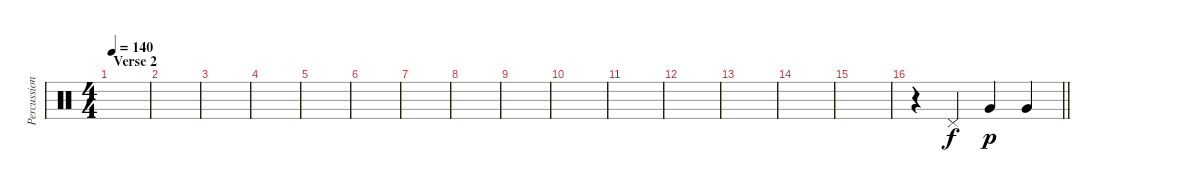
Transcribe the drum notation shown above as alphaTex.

\track ("Percussions" "Percussion") {instrument percussion}
\staff {score}
\articulation defaults
\ts (4 4)
\section ("" "Verse 2")
\tempo 140
\clef neutral
\ks c
|
|
|
|
|
|
|
|
|
|
|
|
|
|
|
\barLineRight lightlight
r.4 "Pedal Hi-Hat (hit)".4 "Very Low Tom (hit)".4{dy p} "Very Low Tom (hit)".4
